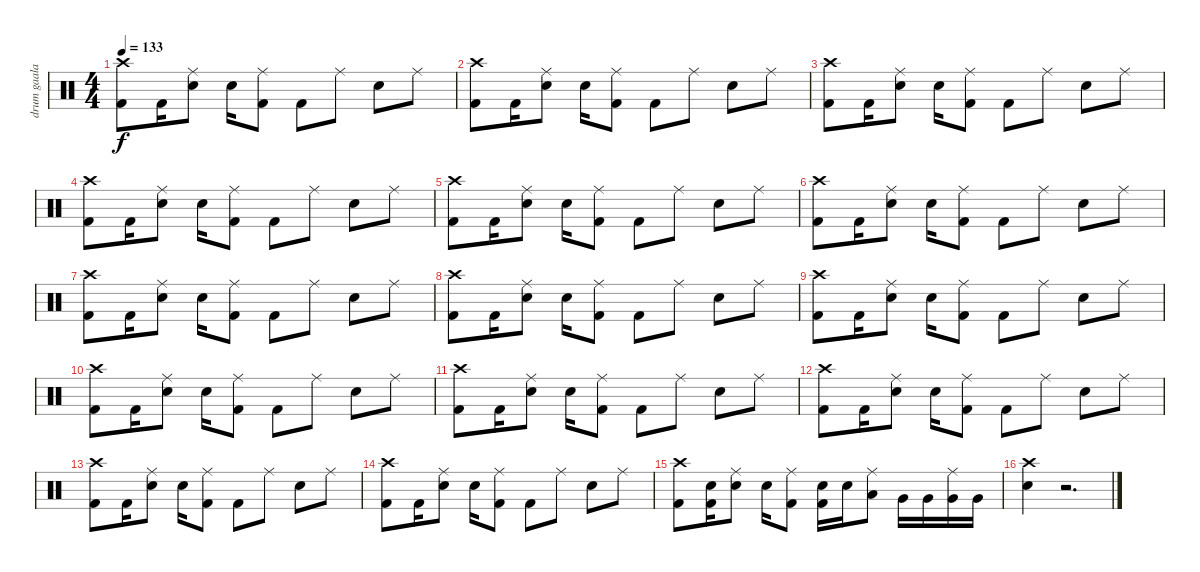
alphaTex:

\track ("drum gaalaas" "drum gaala") {instrument percussion}
\staff {score}
\articulation defaults
\ts (4 4)
\tempo 133
\clef neutral
\ks c
("Crash high (hit)" "Kick (hit) 2").8{dy f} "Kick (hit) 2".16 ("Ride (middle)" "Snare (hit) 2").8 "Snare (hit) 2".16 ("Ride (middle)" "Kick (hit) 2").8 "Kick (hit) 2".8 "Ride (middle)".8 "Snare (hit) 2".8 "Ride (middle)".8 |
("Crash high (hit)" "Kick (hit) 2").8 "Kick (hit) 2".16 ("Ride (middle)" "Snare (hit) 2").8 "Snare (hit) 2".16 ("Ride (middle)" "Kick (hit) 2").8 "Kick (hit) 2".8 "Ride (middle)".8 "Snare (hit) 2".8 "Ride (middle)".8 |
("Crash high (hit)" "Kick (hit) 2").8 "Kick (hit) 2".16 ("Ride (middle)" "Snare (hit) 2").8 "Snare (hit) 2".16 ("Ride (middle)" "Kick (hit) 2").8 "Kick (hit) 2".8 "Ride (middle)".8 "Snare (hit) 2".8 "Ride (middle)".8 |
("Crash high (hit)" "Kick (hit) 2").8 "Kick (hit) 2".16 ("Ride (middle)" "Snare (hit) 2").8 "Snare (hit) 2".16 ("Ride (middle)" "Kick (hit) 2").8 "Kick (hit) 2".8 "Ride (middle)".8 "Snare (hit) 2".8 "Ride (middle)".8 |
("Crash high (hit)" "Kick (hit) 2").8 "Kick (hit) 2".16 ("Ride (middle)" "Snare (hit) 2").8 "Snare (hit) 2".16 ("Ride (middle)" "Kick (hit) 2").8 "Kick (hit) 2".8 "Ride (middle)".8 "Snare (hit) 2".8 "Ride (middle)".8 |
("Crash high (hit)" "Kick (hit) 2").8 "Kick (hit) 2".16 ("Ride (middle)" "Snare (hit) 2").8 "Snare (hit) 2".16 ("Ride (middle)" "Kick (hit) 2").8 "Kick (hit) 2".8 "Ride (middle)".8 "Snare (hit) 2".8 "Ride (middle)".8 |
("Crash high (hit)" "Kick (hit) 2").8 "Kick (hit) 2".16 ("Ride (middle)" "Snare (hit) 2").8 "Snare (hit) 2".16 ("Ride (middle)" "Kick (hit) 2").8 "Kick (hit) 2".8 "Ride (middle)".8 "Snare (hit) 2".8 "Ride (middle)".8 |
("Crash high (hit)" "Kick (hit) 2").8 "Kick (hit) 2".16 ("Ride (middle)" "Snare (hit) 2").8 "Snare (hit) 2".16 ("Ride (middle)" "Kick (hit) 2").8 "Kick (hit) 2".8 "Ride (middle)".8 "Snare (hit) 2".8 "Ride (middle)".8 |
("Crash high (hit)" "Kick (hit) 2").8 "Kick (hit) 2".16 ("Ride (middle)" "Snare (hit) 2").8 "Snare (hit) 2".16 ("Ride (middle)" "Kick (hit) 2").8 "Kick (hit) 2".8 "Ride (middle)".8 "Snare (hit) 2".8 "Ride (middle)".8 |
("Crash high (hit)" "Kick (hit) 2").8 "Kick (hit) 2".16 ("Ride (middle)" "Snare (hit) 2").8 "Snare (hit) 2".16 ("Ride (middle)" "Kick (hit) 2").8 "Kick (hit) 2".8 "Ride (middle)".8 "Snare (hit) 2".8 "Ride (middle)".8 |
("Crash high (hit)" "Kick (hit) 2").8 "Kick (hit) 2".16 ("Ride (middle)" "Snare (hit) 2").8 "Snare (hit) 2".16 ("Ride (middle)" "Kick (hit) 2").8 "Kick (hit) 2".8 "Ride (middle)".8 "Snare (hit) 2".8 "Ride (middle)".8 |
("Crash high (hit)" "Kick (hit) 2").8 "Kick (hit) 2".16 ("Ride (middle)" "Snare (hit) 2").8 "Snare (hit) 2".16 ("Ride (middle)" "Kick (hit) 2").8 "Kick (hit) 2".8 "Ride (middle)".8 "Snare (hit) 2".8 "Ride (middle)".8 |
("Crash high (hit)" "Kick (hit) 2").8 "Kick (hit) 2".16 ("Ride (middle)" "Snare (hit) 2").8 "Snare (hit) 2".16 ("Ride (middle)" "Kick (hit) 2").8 "Kick (hit) 2".8 "Ride (middle)".8 "Snare (hit) 2".8 "Ride (middle)".8 |
("Crash high (hit)" "Kick (hit) 2").8 "Kick (hit) 2".16 ("Ride (middle)" "Snare (hit) 2").8 "Snare (hit) 2".16 ("Ride (middle)" "Kick (hit) 2").8 "Kick (hit) 2".8 "Ride (middle)".8 "Snare (hit) 2".8 "Ride (middle)".8 |
("Crash high (hit)" "Kick (hit) 2").8 ("Electric Snare (hit)" "Kick (hit) 2").16 ("Ride (middle)" "Electric Snare (hit)").8 "Electric Snare (hit)".16 ("Ride (middle)" "Kick (hit) 2").8 ("Electric Snare (hit)" "Kick (hit) 2").16 "Electric Snare (hit)".16 ("Ride (middle)" "Low Tom (hit)").8 "Very Low Tom (hit)".16 "Very Low Tom (hit)".16 ("Ride (middle)" "Very Low Tom (hit)").16 "Very Low Tom (hit)".16 |
("Crash high (hit)" "Snare (hit) 2").4 r.2{d}
